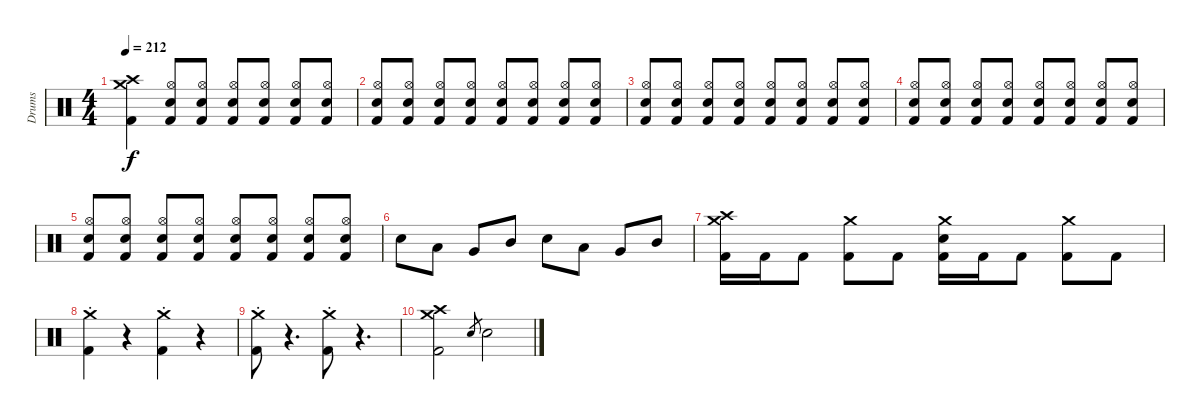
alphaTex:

\track ("Drums" "Drums") {instrument percussion}
\staff {score}
\articulation defaults
\ts (4 4)
\tempo 212
\clef neutral
\ks c
("Crash medium (hit)" "Crash high (hit)" "Kick (hit) 2").4{dy f volume 14} ("Hi-Hat (open)" "Electric Snare (hit)" "Kick (hit) 2").8 ("Hi-Hat (open)" "Electric Snare (hit)" "Kick (hit) 2").8 ("Hi-Hat (open)" "Electric Snare (hit)" "Kick (hit) 2").8 ("Hi-Hat (open)" "Electric Snare (hit)" "Kick (hit) 2").8 ("Hi-Hat (open)" "Electric Snare (hit)" "Kick (hit) 2").8 ("Hi-Hat (open)" "Electric Snare (hit)" "Kick (hit) 2").8 |
("Hi-Hat (open)" "Electric Snare (hit)" "Kick (hit) 2").8 ("Hi-Hat (open)" "Electric Snare (hit)" "Kick (hit) 2").8 ("Hi-Hat (open)" "Electric Snare (hit)" "Kick (hit) 2").8 ("Hi-Hat (open)" "Electric Snare (hit)" "Kick (hit) 2").8 ("Hi-Hat (open)" "Electric Snare (hit)" "Kick (hit) 2").8 ("Hi-Hat (open)" "Electric Snare (hit)" "Kick (hit) 2").8 ("Hi-Hat (open)" "Electric Snare (hit)" "Kick (hit) 2").8 ("Hi-Hat (open)" "Electric Snare (hit)" "Kick (hit) 2").8 |
("Hi-Hat (open)" "Electric Snare (hit)" "Kick (hit) 2").8 ("Hi-Hat (open)" "Electric Snare (hit)" "Kick (hit) 2").8 ("Hi-Hat (open)" "Electric Snare (hit)" "Kick (hit) 2").8 ("Hi-Hat (open)" "Electric Snare (hit)" "Kick (hit) 2").8 ("Hi-Hat (open)" "Electric Snare (hit)" "Kick (hit) 2").8 ("Hi-Hat (open)" "Electric Snare (hit)" "Kick (hit) 2").8 ("Hi-Hat (open)" "Electric Snare (hit)" "Kick (hit) 2").8 ("Hi-Hat (open)" "Electric Snare (hit)" "Kick (hit) 2").8 |
("Hi-Hat (open)" "Electric Snare (hit)" "Kick (hit) 2").8 ("Hi-Hat (open)" "Electric Snare (hit)" "Kick (hit) 2").8 ("Hi-Hat (open)" "Electric Snare (hit)" "Kick (hit) 2").8 ("Hi-Hat (open)" "Electric Snare (hit)" "Kick (hit) 2").8 ("Hi-Hat (open)" "Electric Snare (hit)" "Kick (hit) 2").8 ("Hi-Hat (open)" "Electric Snare (hit)" "Kick (hit) 2").8 ("Hi-Hat (open)" "Electric Snare (hit)" "Kick (hit) 2").8 ("Hi-Hat (open)" "Electric Snare (hit)" "Kick (hit) 2").8 |
("Hi-Hat (open)" "Electric Snare (hit)" "Kick (hit) 2").8 ("Hi-Hat (open)" "Electric Snare (hit)" "Kick (hit) 2").8 ("Hi-Hat (open)" "Electric Snare (hit)" "Kick (hit) 2").8 ("Hi-Hat (open)" "Electric Snare (hit)" "Kick (hit) 2").8 ("Hi-Hat (open)" "Electric Snare (hit)" "Kick (hit) 2").8 ("Hi-Hat (open)" "Electric Snare (hit)" "Kick (hit) 2").8 ("Hi-Hat (open)" "Electric Snare (hit)" "Kick (hit) 2").8 ("Hi-Hat (open)" "Electric Snare (hit)" "Kick (hit) 2").8 |
"Electric Snare (hit)".8 "Low Tom (hit)".8 "Very Low Tom (hit)".8 "Mid Tom (hit)".8 "Electric Snare (hit)".8 "Low Tom (hit)".8 "Very Low Tom (hit)".8 "Mid Tom (hit)".8 |
("Crash medium (hit)" "Crash high (hit)" "Kick (hit) 2").16 "Kick (hit) 2".16 "Kick (hit) 2".8 ("Crash medium (hit)" "Kick (hit) 2").8 "Kick (hit) 2".8 ("Crash medium (hit)" "Electric Snare (hit)" "Kick (hit) 2").16 "Kick (hit) 2".16 "Kick (hit) 2".8 ("Crash medium (hit)" "Kick (hit) 2").8 "Kick (hit) 2".8 |
("Crash medium (hit)"{st} "Kick (hit) 2").4 r.4{volume 0} ("Crash medium (hit)"{st} "Kick (hit) 2").4{volume 14} r.4{volume 0} |
("Crash medium (hit)"{st} "Kick (hit) 2").8{volume 14} r.4{d volume 0} ("Crash medium (hit)"{st} "Kick (hit) 2").8{volume 14} r.4{d volume 0} |
("Crash medium (hit)" "Crash high (hit)" "Kick (hit) 2").2{volume 14} "Electric Snare (hit)".8{gr} "Electric Snare (hit)".2
